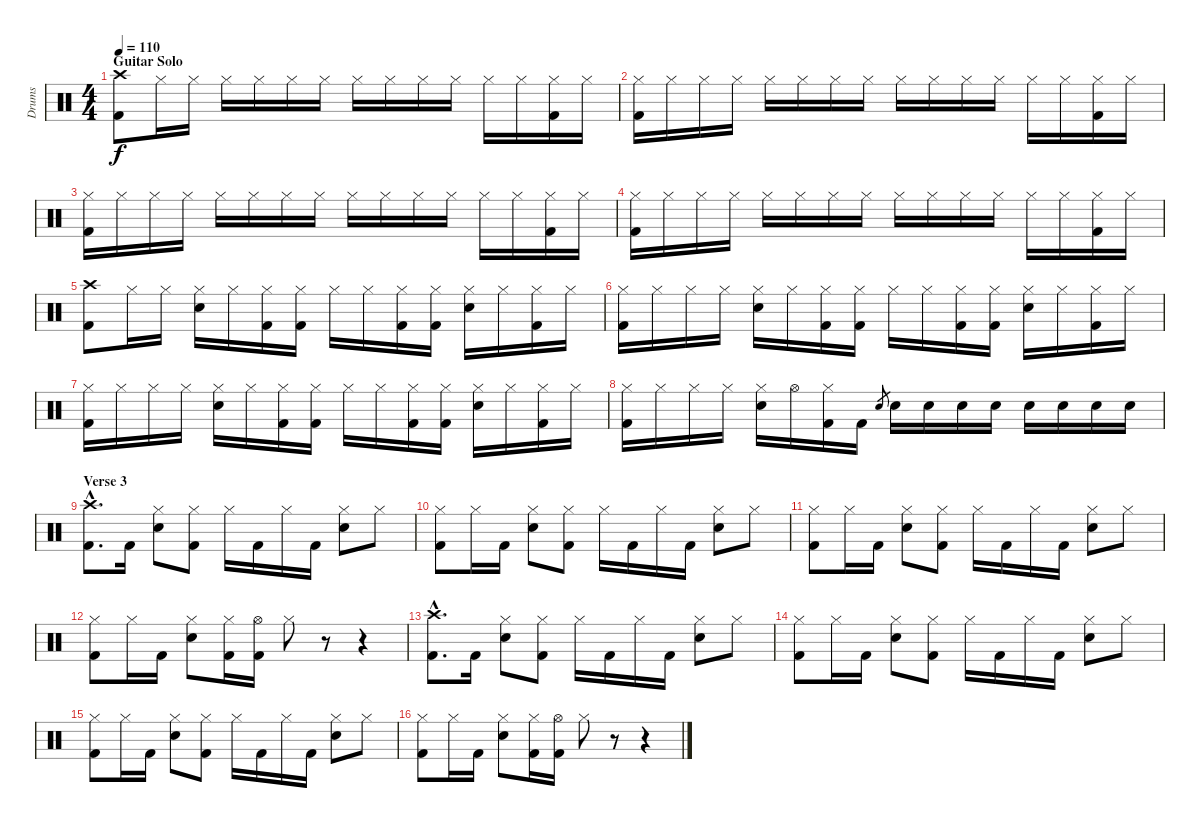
\track ("Drums" "Drums") {instrument percussion}
\staff {score}
\articulation defaults
\ts (4 4)
\section ("" "Guitar Solo")
\tempo 110
\clef neutral
\ks c
("Crash high (hit)" "Kick (hit) 2").8{dy f} "Hi-Hat (closed)".16 "Hi-Hat (closed)".16 "Hi-Hat (closed)".16 "Hi-Hat (closed)".16 "Hi-Hat (closed)".16 "Hi-Hat (closed)".16 "Hi-Hat (closed)".16 "Hi-Hat (closed)".16 "Hi-Hat (closed)".16 "Hi-Hat (closed)".16 "Hi-Hat (closed)".16 "Hi-Hat (closed)".16 ("Hi-Hat (closed)" "Kick (hit) 2").16 "Hi-Hat (closed)".16 |
("Hi-Hat (closed)" "Kick (hit) 2").16 "Hi-Hat (closed)".16 "Hi-Hat (closed)".16 "Hi-Hat (closed)".16 "Hi-Hat (closed)".16 "Hi-Hat (closed)".16 "Hi-Hat (closed)".16 "Hi-Hat (closed)".16 "Hi-Hat (closed)".16 "Hi-Hat (closed)".16 "Hi-Hat (closed)".16 "Hi-Hat (closed)".16 "Hi-Hat (closed)".16 "Hi-Hat (closed)".16 ("Hi-Hat (closed)" "Kick (hit) 2").16 "Hi-Hat (closed)".16 |
("Hi-Hat (closed)" "Kick (hit) 2").16 "Hi-Hat (closed)".16 "Hi-Hat (closed)".16 "Hi-Hat (closed)".16 "Hi-Hat (closed)".16 "Hi-Hat (closed)".16 "Hi-Hat (closed)".16 "Hi-Hat (closed)".16 "Hi-Hat (closed)".16 "Hi-Hat (closed)".16 "Hi-Hat (closed)".16 "Hi-Hat (closed)".16 "Hi-Hat (closed)".16 "Hi-Hat (closed)".16 ("Hi-Hat (closed)" "Kick (hit) 2").16 "Hi-Hat (closed)".16 |
("Hi-Hat (closed)" "Kick (hit) 2").16 "Hi-Hat (closed)".16 "Hi-Hat (closed)".16 "Hi-Hat (closed)".16 "Hi-Hat (closed)".16 "Hi-Hat (closed)".16 "Hi-Hat (closed)".16 "Hi-Hat (closed)".16 "Hi-Hat (closed)".16 "Hi-Hat (closed)".16 "Hi-Hat (closed)".16 "Hi-Hat (closed)".16 "Hi-Hat (closed)".16 "Hi-Hat (closed)".16 ("Hi-Hat (closed)" "Kick (hit) 2").16 "Hi-Hat (closed)".16 |
("Crash high (hit)" "Kick (hit) 2").8 "Hi-Hat (closed)".16 "Hi-Hat (closed)".16 ("Hi-Hat (closed)" "Electric Snare (hit)").16 "Hi-Hat (closed)".16 ("Hi-Hat (closed)" "Kick (hit) 2").16 ("Hi-Hat (closed)" "Kick (hit) 2").16 "Hi-Hat (closed)".16 "Hi-Hat (closed)".16 ("Hi-Hat (closed)" "Kick (hit) 2").16 ("Hi-Hat (closed)" "Kick (hit) 2").16 ("Hi-Hat (closed)" "Electric Snare (hit)").16 "Hi-Hat (closed)".16 ("Hi-Hat (closed)" "Kick (hit) 2").16 "Hi-Hat (closed)".16 |
("Hi-Hat (closed)" "Kick (hit) 2").16 "Hi-Hat (closed)".16 "Hi-Hat (closed)".16 "Hi-Hat (closed)".16 ("Hi-Hat (closed)" "Electric Snare (hit)").16 "Hi-Hat (closed)".16 ("Hi-Hat (closed)" "Kick (hit) 2").16 ("Hi-Hat (closed)" "Kick (hit) 2").16 "Hi-Hat (closed)".16 "Hi-Hat (closed)".16 ("Hi-Hat (closed)" "Kick (hit) 2").16 ("Hi-Hat (closed)" "Kick (hit) 2").16 ("Hi-Hat (closed)" "Electric Snare (hit)").16 "Hi-Hat (closed)".16 ("Hi-Hat (closed)" "Kick (hit) 2").16 "Hi-Hat (closed)".16 |
("Hi-Hat (closed)" "Kick (hit) 2").16 "Hi-Hat (closed)".16 "Hi-Hat (closed)".16 "Hi-Hat (closed)".16 ("Hi-Hat (closed)" "Electric Snare (hit)").16 "Hi-Hat (closed)".16 ("Hi-Hat (closed)" "Kick (hit) 2").16 ("Hi-Hat (closed)" "Kick (hit) 2").16 "Hi-Hat (closed)".16 "Hi-Hat (closed)".16 ("Hi-Hat (closed)" "Kick (hit) 2").16 ("Hi-Hat (closed)" "Kick (hit) 2").16 ("Hi-Hat (closed)" "Electric Snare (hit)").16 "Hi-Hat (closed)".16 ("Hi-Hat (closed)" "Kick (hit) 2").16 "Hi-Hat (closed)".16 |
("Hi-Hat (closed)" "Kick (hit) 2").16 "Hi-Hat (closed)".16 "Hi-Hat (closed)".16 "Hi-Hat (closed)".16 ("Hi-Hat (closed)" "Electric Snare (hit)").16 "Hi-Hat (open)".16 ("Hi-Hat (closed)" "Kick (hit) 2").16 "Kick (hit) 2".16 "Electric Snare (hit)".8{gr} "Electric Snare (hit)".16 "Electric Snare (hit)".16 "Electric Snare (hit)".16 "Electric Snare (hit)".16 "Electric Snare (hit)".16 "Electric Snare (hit)".16 "Electric Snare (hit)".16 "Electric Snare (hit)".16 |
\section ("" "Verse 3")
("Crash high (hit)"{hac} "Kick (hit) 2"{hac}).8{d} "Kick (hit) 2".16 ("Hi-Hat (closed)" "Electric Snare (hit)").8 ("Hi-Hat (closed)" "Kick (hit) 2").8 "Hi-Hat (closed)".16 "Kick (hit) 2".16 "Hi-Hat (closed)".16 "Kick (hit) 2".16 ("Hi-Hat (closed)" "Electric Snare (hit)").8 "Hi-Hat (closed)".8 |
("Hi-Hat (closed)" "Kick (hit) 2").8 "Hi-Hat (closed)".16 "Kick (hit) 2".16 ("Hi-Hat (closed)" "Electric Snare (hit)").8 ("Hi-Hat (closed)" "Kick (hit) 2").8 "Hi-Hat (closed)".16 "Kick (hit) 2".16 "Hi-Hat (closed)".16 "Kick (hit) 2".16 ("Hi-Hat (closed)" "Electric Snare (hit)").8 "Hi-Hat (closed)".8 |
("Hi-Hat (closed)" "Kick (hit) 2").8 "Hi-Hat (closed)".16 "Kick (hit) 2".16 ("Hi-Hat (closed)" "Electric Snare (hit)").8 ("Hi-Hat (closed)" "Kick (hit) 2").8 "Hi-Hat (closed)".16 "Kick (hit) 2".16 "Hi-Hat (closed)".16 "Kick (hit) 2".16 ("Hi-Hat (closed)" "Electric Snare (hit)").8 "Hi-Hat (closed)".8 |
("Hi-Hat (closed)" "Kick (hit) 2").8 "Hi-Hat (closed)".16 "Kick (hit) 2".16 ("Hi-Hat (closed)" "Electric Snare (hit)").8 ("Hi-Hat (closed)" "Kick (hit) 2").16 ("Hi-Hat (open)" "Kick (hit) 2").16 "Hi-Hat (closed)".8 r.8 r.4 |
("Crash high (hit)"{hac} "Kick (hit) 2"{hac}).8{d} "Kick (hit) 2".16 ("Hi-Hat (closed)" "Electric Snare (hit)").8 ("Hi-Hat (closed)" "Kick (hit) 2").8 "Hi-Hat (closed)".16 "Kick (hit) 2".16 "Hi-Hat (closed)".16 "Kick (hit) 2".16 ("Hi-Hat (closed)" "Electric Snare (hit)").8 "Hi-Hat (closed)".8 |
("Hi-Hat (closed)" "Kick (hit) 2").8 "Hi-Hat (closed)".16 "Kick (hit) 2".16 ("Hi-Hat (closed)" "Electric Snare (hit)").8 ("Hi-Hat (closed)" "Kick (hit) 2").8 "Hi-Hat (closed)".16 "Kick (hit) 2".16 "Hi-Hat (closed)".16 "Kick (hit) 2".16 ("Hi-Hat (closed)" "Electric Snare (hit)").8 "Hi-Hat (closed)".8 |
("Hi-Hat (closed)" "Kick (hit) 2").8 "Hi-Hat (closed)".16 "Kick (hit) 2".16 ("Hi-Hat (closed)" "Electric Snare (hit)").8 ("Hi-Hat (closed)" "Kick (hit) 2").8 "Hi-Hat (closed)".16 "Kick (hit) 2".16 "Hi-Hat (closed)".16 "Kick (hit) 2".16 ("Hi-Hat (closed)" "Electric Snare (hit)").8 "Hi-Hat (closed)".8 |
("Hi-Hat (closed)" "Kick (hit) 2").8 "Hi-Hat (closed)".16 "Kick (hit) 2".16 ("Hi-Hat (closed)" "Electric Snare (hit)").8 ("Hi-Hat (closed)" "Kick (hit) 2").16 ("Hi-Hat (open)" "Kick (hit) 2").16 "Hi-Hat (closed)".8 r.8 r.4
